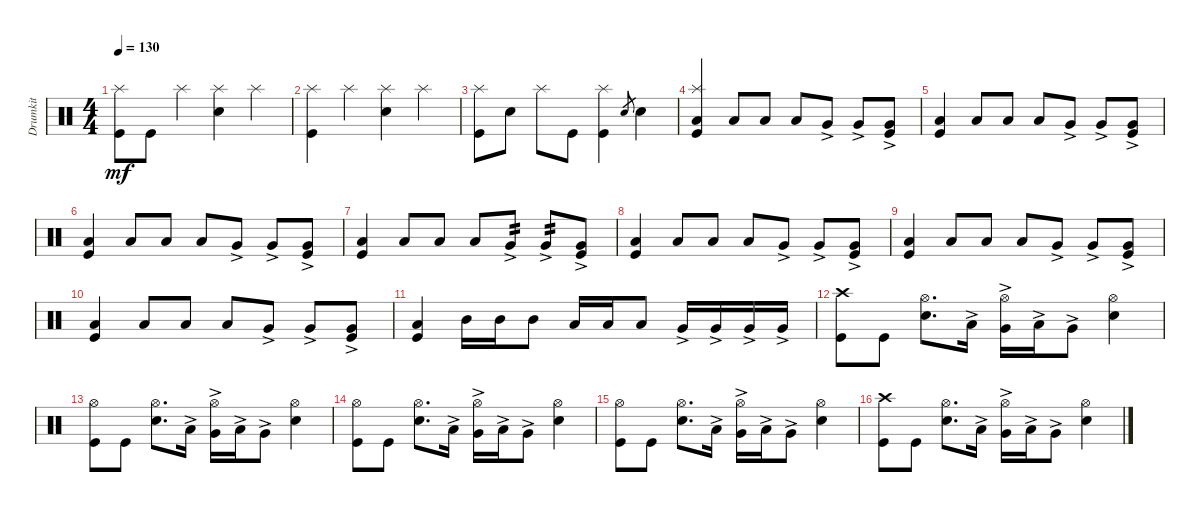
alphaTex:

\track ("Drumkit" "Drumkit") {instrument percussion}
\staff {score}
\articulation defaults
\ts (4 4)
\tempo 130
\clef neutral
\ks c
("Kick (hit)" "Splash (hit)").8{dy mf} "Kick (hit)".8 "Splash (hit)".4 ("Snare (hit) 2" "Splash (hit)").4 "Splash (hit)".4 |
("Kick (hit)" "Splash (hit)").4 "Splash (hit)".4 ("Snare (hit) 2" "Splash (hit)").4 "Splash (hit)".4 |
("Kick (hit)" "Splash (hit)").8 "Snare (hit) 2".8 "Splash (hit)".8 "Kick (hit)".8 ("Kick (hit)" "Splash (hit)").4 "Snare (hit)".8{gr} "Snare (hit) 2".4 |
("Low Tom (hit)" "Kick (hit)" "Splash (hit)").4 "Low Tom (hit)".8 "Low Tom (hit)".8 "Low Tom (hit)".8 "Very Low Tom (hit)"{ac}.8 "Very Low Tom (hit)"{ac}.8 ("Kick (hit)" "Very Low Tom (hit)"{ac}).8 |
("Low Tom (hit)" "Kick (hit)").4 "Low Tom (hit)".8 "Low Tom (hit)".8 "Low Tom (hit)".8 "Very Low Tom (hit)"{ac}.8 "Very Low Tom (hit)"{ac}.8 ("Kick (hit)" "Very Low Tom (hit)"{ac}).8 |
("Low Tom (hit)" "Kick (hit)").4 "Low Tom (hit)".8 "Low Tom (hit)".8 "Low Tom (hit)".8 "Very Low Tom (hit)"{ac}.8 "Very Low Tom (hit)"{ac}.8 ("Kick (hit)" "Very Low Tom (hit)"{ac}).8 |
("Low Tom (hit)" "Kick (hit)").4 "Low Tom (hit)".8 "Low Tom (hit)".8 "Low Tom (hit)".8 "Very Low Tom (hit)"{ac}.8{tp 2} "Very Low Tom (hit)"{ac}.8{tp 2} ("Kick (hit)" "Very Low Tom (hit)"{ac}).8 |
("Low Tom (hit)" "Kick (hit)").4 "Low Tom (hit)".8 "Low Tom (hit)".8 "Low Tom (hit)".8 "Very Low Tom (hit)"{ac}.8 "Very Low Tom (hit)"{ac}.8 ("Kick (hit)" "Very Low Tom (hit)"{ac}).8 |
("Low Tom (hit)" "Kick (hit)").4 "Low Tom (hit)".8 "Low Tom (hit)".8 "Low Tom (hit)".8 "Very Low Tom (hit)"{ac}.8 "Very Low Tom (hit)"{ac}.8 ("Kick (hit)" "Very Low Tom (hit)"{ac}).8 |
("Low Tom (hit)" "Kick (hit)").4 "Low Tom (hit)".8 "Low Tom (hit)".8 "Low Tom (hit)".8 "Very Low Tom (hit)"{ac}.8 "Very Low Tom (hit)"{ac}.8 ("Kick (hit)" "Very Low Tom (hit)"{ac}).8 |
("Low Tom (hit)" "Kick (hit)").4 "Mid Tom (hit)".16 "Mid Tom (hit)".16 "Mid Tom (hit)".8 "Low Tom (hit)".16 "Low Tom (hit)".16 "Low Tom (hit)".8 "Very Low Tom (hit)"{ac}.16 "Very Low Tom (hit)"{ac}.16 "Very Low Tom (hit)"{ac}.16 "Very Low Tom (hit)"{ac}.16 |
("Kick (hit)" "Crash high (hit)").8 "Kick (hit)".8 ("Snare (hit) 2" "Hi-Hat (open)").8{d} "Low Tom (hit)"{ac}.16 ("Hi-Hat (open)" "Very Low Tom (hit)"{ac}).16 "Low Tom (hit)"{ac}.16 "Very Low Tom (hit)"{ac}.8 ("Snare (hit) 2" "Hi-Hat (open)").4 |
("Kick (hit)" "Hi-Hat (open)").8 "Kick (hit)".8 ("Snare (hit) 2" "Hi-Hat (open)").8{d} "Low Tom (hit)"{ac}.16 ("Hi-Hat (open)" "Very Low Tom (hit)"{ac}).16 "Low Tom (hit)"{ac}.16 "Very Low Tom (hit)"{ac}.8 ("Snare (hit) 2" "Hi-Hat (open)").4 |
("Kick (hit)" "Hi-Hat (open)").8 "Kick (hit)".8 ("Snare (hit) 2" "Hi-Hat (open)").8{d} "Low Tom (hit)"{ac}.16 ("Hi-Hat (open)" "Very Low Tom (hit)"{ac}).16 "Low Tom (hit)"{ac}.16 "Very Low Tom (hit)"{ac}.8 ("Snare (hit) 2" "Hi-Hat (open)").4 |
("Kick (hit)" "Hi-Hat (open)").8 "Kick (hit)".8 ("Snare (hit) 2" "Hi-Hat (open)").8{d} "Low Tom (hit)"{ac}.16 ("Hi-Hat (open)" "Very Low Tom (hit)"{ac}).16 "Low Tom (hit)"{ac}.16 "Very Low Tom (hit)"{ac}.8 ("Snare (hit) 2" "Hi-Hat (open)").4 |
("Kick (hit)" "Crash high (hit)").8 "Kick (hit)".8 ("Snare (hit) 2" "Hi-Hat (open)").8{d} "Low Tom (hit)"{ac}.16 ("Hi-Hat (open)" "Very Low Tom (hit)"{ac}).16 "Low Tom (hit)"{ac}.16 "Very Low Tom (hit)"{ac}.8 ("Snare (hit) 2" "Hi-Hat (open)").4
